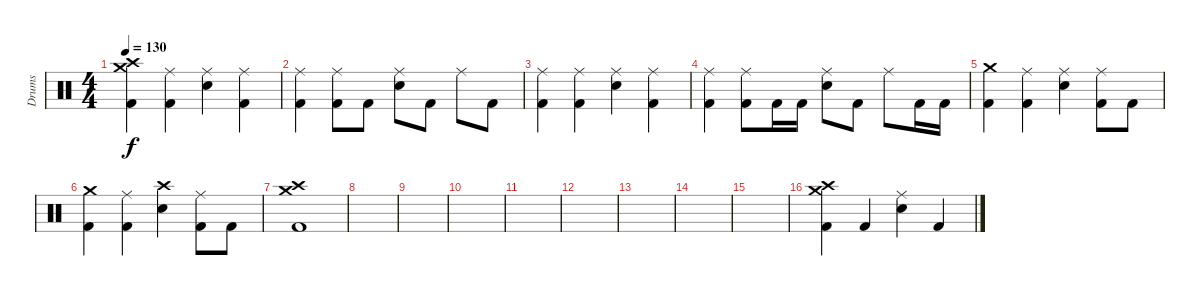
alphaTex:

\track ("Drums" "Drums") {instrument percussion}
\staff {score}
\articulation defaults
\ts (4 4)
\tempo 130
\clef neutral
\ks c
("Crash medium (hit)" "Crash high (hit)" "Kick (hit) 2").4{dy f volume 15} ("Ride (middle)" "Kick (hit) 2").4 ("Ride (middle)" "Electric Snare (hit)").4 ("Ride (middle)" "Kick (hit) 2").4 |
("Ride (middle)" "Kick (hit) 2").4 ("Ride (middle)" "Kick (hit) 2").8 "Kick (hit) 2".8 ("Ride (middle)" "Electric Snare (hit)").8 "Kick (hit) 2".8 "Ride (middle)".8 "Kick (hit) 2".8 |
("Ride (middle)" "Kick (hit) 2").4 ("Ride (middle)" "Kick (hit) 2").4 ("Ride (middle)" "Electric Snare (hit)").4 ("Ride (middle)" "Kick (hit) 2").4 |
("Ride (middle)" "Kick (hit) 2").4 ("Ride (middle)" "Kick (hit) 2").8 "Kick (hit) 2".16 "Kick (hit) 2".16 ("Ride (middle)" "Electric Snare (hit)").8 "Kick (hit) 2".8 "Ride (middle)".8 "Kick (hit) 2".16 "Kick (hit) 2".16 |
("Crash medium (hit)" "Kick (hit) 2").4 ("Ride (middle)" "Kick (hit) 2").4 ("Ride (middle)" "Electric Snare (hit)").4 ("Ride (middle)" "Kick (hit) 2").8 "Kick (hit) 2".8 |
("Crash medium (hit)" "Kick (hit) 2").4 ("Ride (middle)" "Kick (hit) 2").4 ("Crash high (hit)" "Electric Snare (hit)").4 ("Ride (middle)" "Kick (hit) 2").8 "Kick (hit) 2".8 |
("Crash medium (hit)" "Crash high (hit)" "Kick (hit) 2").1 |
|
|
|
|
|
|
|
|
("Crash medium (hit)" "Crash high (hit)" "Kick (hit) 2").4{volume 14} "Kick (hit) 2".4 ("Ride (middle)" "Electric Snare (hit)").4 "Kick (hit) 2".4
